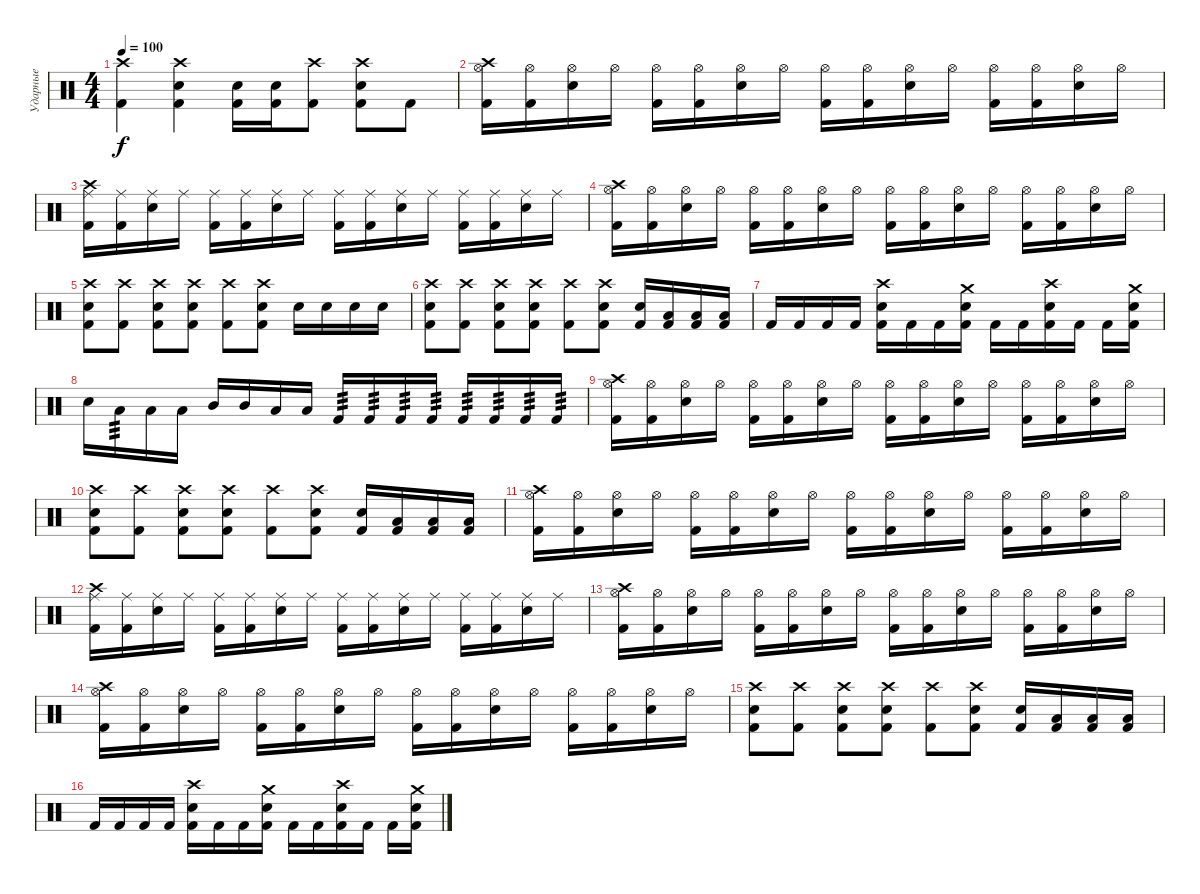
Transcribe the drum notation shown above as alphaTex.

\track ("Ударные" "Ударные") {instrument percussion}
\staff {score}
\articulation defaults
\ts (4 4)
\tempo 100
\clef neutral
\ks c
("Crash high (hit)" "Kick (hit) 2").4{dy f} ("Crash high (hit)" "Snare (hit) 2" "Kick (hit) 2").4 ("Snare (hit) 2" "Kick (hit) 2").16 ("Snare (hit) 2" "Kick (hit) 2").16 ("Crash high (hit)" "Kick (hit) 2").8 ("Crash high (hit)" "Snare (hit) 2" "Kick (hit) 2").8 "Kick (hit) 2".8 |
("Hi-Hat (open)" "Crash high (hit)" "Kick (hit) 2").16 ("Hi-Hat (open)" "Kick (hit) 2").16 ("Hi-Hat (open)" "Snare (hit) 2").16 "Hi-Hat (open)".16 ("Hi-Hat (open)" "Kick (hit) 2").16 ("Hi-Hat (open)" "Kick (hit) 2").16 ("Hi-Hat (open)" "Snare (hit) 2").16 "Hi-Hat (open)".16 ("Hi-Hat (open)" "Kick (hit) 2").16 ("Hi-Hat (open)" "Kick (hit) 2").16 ("Hi-Hat (open)" "Snare (hit) 2").16 "Hi-Hat (open)".16 ("Hi-Hat (open)" "Kick (hit) 2").16 ("Hi-Hat (open)" "Kick (hit) 2").16 ("Hi-Hat (open)" "Snare (hit) 2").16 "Hi-Hat (open)".16 |
("Ride (middle)" "Crash high (hit)" "Kick (hit) 2").16 ("Ride (middle)" "Kick (hit) 2").16 ("Ride (middle)" "Snare (hit) 2").16 "Ride (middle)".16 ("Ride (middle)" "Kick (hit) 2").16 ("Ride (middle)" "Kick (hit) 2").16 ("Ride (middle)" "Snare (hit) 2").16 "Ride (middle)".16 ("Ride (middle)" "Kick (hit) 2").16 ("Ride (middle)" "Kick (hit) 2").16 ("Ride (middle)" "Snare (hit) 2").16 "Ride (middle)".16 ("Ride (middle)" "Kick (hit) 2").16 ("Ride (middle)" "Kick (hit) 2").16 ("Ride (middle)" "Snare (hit) 2").16 "Ride (middle)".16 |
("Hi-Hat (open)" "Crash high (hit)" "Kick (hit) 2").16 ("Hi-Hat (open)" "Kick (hit) 2").16 ("Hi-Hat (open)" "Snare (hit) 2").16 "Hi-Hat (open)".16 ("Hi-Hat (open)" "Kick (hit) 2").16 ("Hi-Hat (open)" "Kick (hit) 2").16 ("Hi-Hat (open)" "Snare (hit) 2").16 "Hi-Hat (open)".16 ("Hi-Hat (open)" "Kick (hit) 2").16 ("Hi-Hat (open)" "Kick (hit) 2").16 ("Hi-Hat (open)" "Snare (hit) 2").16 "Hi-Hat (open)".16 ("Hi-Hat (open)" "Kick (hit) 2").16 ("Hi-Hat (open)" "Kick (hit) 2").16 ("Hi-Hat (open)" "Snare (hit) 2").16 "Hi-Hat (open)".16 |
("Crash high (hit)" "Snare (hit) 2" "Kick (hit) 2").8 ("Crash high (hit)" "Kick (hit) 2").8 ("Crash high (hit)" "Snare (hit) 2" "Kick (hit) 2").8 ("Crash high (hit)" "Snare (hit) 2" "Kick (hit) 2").8 ("Crash high (hit)" "Kick (hit) 2").8 ("Crash high (hit)" "Snare (hit) 2" "Kick (hit) 2").8 "Snare (hit) 2".16 "Snare (hit) 2".16 "Snare (hit) 2".16 "Snare (hit) 2".16 |
("Crash high (hit)" "Snare (hit) 2" "Kick (hit) 2").8 ("Crash high (hit)" "Kick (hit) 2").8 ("Crash high (hit)" "Snare (hit) 2" "Kick (hit) 2").8 ("Crash high (hit)" "Snare (hit) 2" "Kick (hit) 2").8 ("Crash high (hit)" "Kick (hit) 2").8 ("Crash high (hit)" "Snare (hit) 2" "Kick (hit) 2").8 ("Snare (hit) 2" "Kick (hit) 2").16 ("Low Tom (hit)" "Kick (hit) 2").16 ("Low Tom (hit)" "Kick (hit) 2").16 ("Low Floor Tom (hit)" "Kick (hit) 2").16 |
"Kick (hit) 2".16 "Kick (hit) 2".16 "Kick (hit) 2".16 "Kick (hit) 2".16 ("Crash high (hit)" "Snare (hit) 2" "Kick (hit) 2").16 "Kick (hit) 2".16 "Kick (hit) 2".16 ("Crash medium (hit)" "Snare (hit) 2" "Kick (hit) 2").16 "Kick (hit) 2".16 "Kick (hit) 2".16 ("Crash high (hit)" "Snare (hit) 2" "Kick (hit) 2").16 "Kick (hit) 2".16 "Kick (hit) 2".16 ("Crash medium (hit)" "Snare (hit) 2" "Kick (hit) 2").16 |
"Snare (hit) 2".16 "Low Tom (hit)".16{tp 3} "Low Tom (hit)".16 "Low Tom (hit)".16 "Mid Tom (hit)".16 "Mid Tom (hit)".16 "Low Floor Tom (hit)".16 "Low Floor Tom (hit)".16 "Kick (hit) 2".16{tp 3} "Kick (hit) 2".16{tp 3} "Kick (hit) 2".16{tp 3} "Kick (hit) 2".16{tp 3} "Kick (hit) 2".16{tp 3} "Kick (hit) 2".16{tp 3} "Kick (hit) 2".16{tp 3} "Kick (hit) 2".16{tp 3} |
("Hi-Hat (open)" "Crash high (hit)" "Kick (hit) 2").16 ("Hi-Hat (open)" "Kick (hit) 2").16 ("Hi-Hat (open)" "Snare (hit) 2").16 "Hi-Hat (open)".16 ("Hi-Hat (open)" "Kick (hit) 2").16 ("Hi-Hat (open)" "Kick (hit) 2").16 ("Hi-Hat (open)" "Snare (hit) 2").16 "Hi-Hat (open)".16 ("Hi-Hat (open)" "Kick (hit) 2").16 ("Hi-Hat (open)" "Kick (hit) 2").16 ("Hi-Hat (open)" "Snare (hit) 2").16 "Hi-Hat (open)".16 ("Hi-Hat (open)" "Kick (hit) 2").16 ("Hi-Hat (open)" "Kick (hit) 2").16 ("Hi-Hat (open)" "Snare (hit) 2").16 "Hi-Hat (open)".16 |
("Crash high (hit)" "Snare (hit) 2" "Kick (hit) 2").8 ("Crash high (hit)" "Kick (hit) 2").8 ("Crash high (hit)" "Snare (hit) 2" "Kick (hit) 2").8 ("Crash high (hit)" "Snare (hit) 2" "Kick (hit) 2").8 ("Crash high (hit)" "Kick (hit) 2").8 ("Crash high (hit)" "Snare (hit) 2" "Kick (hit) 2").8 ("Snare (hit) 2" "Kick (hit) 2").16 ("Low Tom (hit)" "Kick (hit) 2").16 ("Low Tom (hit)" "Kick (hit) 2").16 ("Low Floor Tom (hit)" "Kick (hit) 2").16 |
("Hi-Hat (open)" "Crash high (hit)" "Kick (hit) 2").16 ("Hi-Hat (open)" "Kick (hit) 2").16 ("Hi-Hat (open)" "Snare (hit) 2").16 "Hi-Hat (open)".16 ("Hi-Hat (open)" "Kick (hit) 2").16 ("Hi-Hat (open)" "Kick (hit) 2").16 ("Hi-Hat (open)" "Snare (hit) 2").16 "Hi-Hat (open)".16 ("Hi-Hat (open)" "Kick (hit) 2").16 ("Hi-Hat (open)" "Kick (hit) 2").16 ("Hi-Hat (open)" "Snare (hit) 2").16 "Hi-Hat (open)".16 ("Hi-Hat (open)" "Kick (hit) 2").16 ("Hi-Hat (open)" "Kick (hit) 2").16 ("Hi-Hat (open)" "Snare (hit) 2").16 "Hi-Hat (open)".16 |
("Ride (middle)" "Crash high (hit)" "Kick (hit) 2").16 ("Ride (middle)" "Kick (hit) 2").16 ("Ride (middle)" "Snare (hit) 2").16 "Ride (middle)".16 ("Ride (middle)" "Kick (hit) 2").16 ("Ride (middle)" "Kick (hit) 2").16 ("Ride (middle)" "Snare (hit) 2").16 "Ride (middle)".16 ("Ride (middle)" "Kick (hit) 2").16 ("Ride (middle)" "Kick (hit) 2").16 ("Ride (middle)" "Snare (hit) 2").16 "Ride (middle)".16 ("Ride (middle)" "Kick (hit) 2").16 ("Ride (middle)" "Kick (hit) 2").16 ("Ride (middle)" "Snare (hit) 2").16 "Ride (middle)".16 |
("Hi-Hat (open)" "Crash high (hit)" "Kick (hit) 2").16 ("Hi-Hat (open)" "Kick (hit) 2").16 ("Hi-Hat (open)" "Snare (hit) 2").16 "Hi-Hat (open)".16 ("Hi-Hat (open)" "Kick (hit) 2").16 ("Hi-Hat (open)" "Kick (hit) 2").16 ("Hi-Hat (open)" "Snare (hit) 2").16 "Hi-Hat (open)".16 ("Hi-Hat (open)" "Kick (hit) 2").16 ("Hi-Hat (open)" "Kick (hit) 2").16 ("Hi-Hat (open)" "Snare (hit) 2").16 "Hi-Hat (open)".16 ("Hi-Hat (open)" "Kick (hit) 2").16 ("Hi-Hat (open)" "Kick (hit) 2").16 ("Hi-Hat (open)" "Snare (hit) 2").16 "Hi-Hat (open)".16 |
("Hi-Hat (open)" "Crash high (hit)" "Kick (hit) 2").16 ("Hi-Hat (open)" "Kick (hit) 2").16 ("Hi-Hat (open)" "Snare (hit) 2").16 "Hi-Hat (open)".16 ("Hi-Hat (open)" "Kick (hit) 2").16 ("Hi-Hat (open)" "Kick (hit) 2").16 ("Hi-Hat (open)" "Snare (hit) 2").16 "Hi-Hat (open)".16 ("Hi-Hat (open)" "Kick (hit) 2").16 ("Hi-Hat (open)" "Kick (hit) 2").16 ("Hi-Hat (open)" "Snare (hit) 2").16 "Hi-Hat (open)".16 ("Hi-Hat (open)" "Kick (hit) 2").16 ("Hi-Hat (open)" "Kick (hit) 2").16 ("Hi-Hat (open)" "Snare (hit) 2").16 "Hi-Hat (open)".16 |
("Crash high (hit)" "Snare (hit) 2" "Kick (hit) 2").8 ("Crash high (hit)" "Kick (hit) 2").8 ("Crash high (hit)" "Snare (hit) 2" "Kick (hit) 2").8 ("Crash high (hit)" "Snare (hit) 2" "Kick (hit) 2").8 ("Crash high (hit)" "Kick (hit) 2").8 ("Crash high (hit)" "Snare (hit) 2" "Kick (hit) 2").8 ("Snare (hit) 2" "Kick (hit) 2").16 ("Low Tom (hit)" "Kick (hit) 2").16 ("Low Tom (hit)" "Kick (hit) 2").16 ("Low Floor Tom (hit)" "Kick (hit) 2").16 |
"Kick (hit) 2".16 "Kick (hit) 2".16 "Kick (hit) 2".16 "Kick (hit) 2".16 ("Crash high (hit)" "Snare (hit) 2" "Kick (hit) 2").16 "Kick (hit) 2".16 "Kick (hit) 2".16 ("Crash medium (hit)" "Snare (hit) 2" "Kick (hit) 2").16 "Kick (hit) 2".16 "Kick (hit) 2".16 ("Crash high (hit)" "Snare (hit) 2" "Kick (hit) 2").16 "Kick (hit) 2".16 "Kick (hit) 2".16 ("Crash medium (hit)" "Snare (hit) 2" "Kick (hit) 2").16
